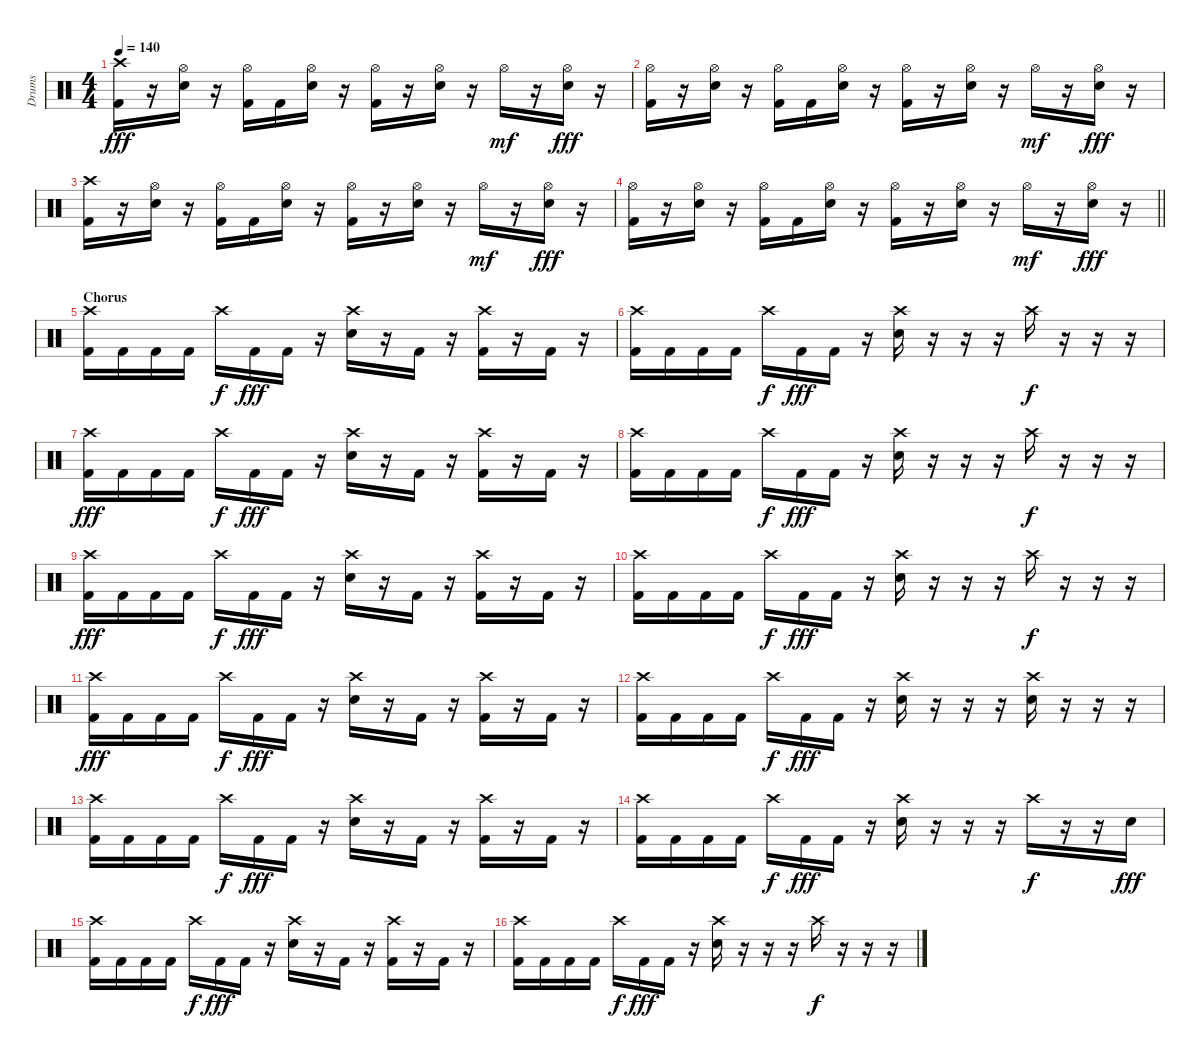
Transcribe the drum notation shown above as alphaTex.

\track ("Drums" "Drums") {instrument percussion}
\staff {score}
\articulation defaults
\ts (4 4)
\tempo 140
\clef neutral
\ks c
("Crash high (hit)" "Kick (hit) 2").16{dy fff} r.16 ("Hi-Hat (open)" "Electric Snare (hit)").16 r.16 ("Hi-Hat (open)" "Kick (hit) 2").16 "Kick (hit) 2".16 ("Hi-Hat (open)" "Electric Snare (hit)").16 r.16 ("Hi-Hat (open)" "Kick (hit) 2").16 r.16 ("Hi-Hat (open)" "Electric Snare (hit)").16 r.16 "Hi-Hat (open)".16{dy mf} r.16 ("Hi-Hat (open)" "Electric Snare (hit)").16{dy fff} r.16 |
("Hi-Hat (open)" "Kick (hit) 2").16 r.16 ("Hi-Hat (open)" "Electric Snare (hit)").16 r.16 ("Hi-Hat (open)" "Kick (hit) 2").16 "Kick (hit) 2".16 ("Hi-Hat (open)" "Electric Snare (hit)").16 r.16 ("Hi-Hat (open)" "Kick (hit) 2").16 r.16 ("Hi-Hat (open)" "Electric Snare (hit)").16 r.16 "Hi-Hat (open)".16{dy mf} r.16 ("Hi-Hat (open)" "Electric Snare (hit)").16{dy fff} r.16 |
("Crash high (hit)" "Kick (hit) 2").16 r.16 ("Hi-Hat (open)" "Electric Snare (hit)").16 r.16 ("Hi-Hat (open)" "Kick (hit) 2").16 "Kick (hit) 2".16 ("Hi-Hat (open)" "Electric Snare (hit)").16 r.16 ("Hi-Hat (open)" "Kick (hit) 2").16 r.16 ("Hi-Hat (open)" "Electric Snare (hit)").16 r.16 "Hi-Hat (open)".16{dy mf} r.16 ("Hi-Hat (open)" "Electric Snare (hit)").16{dy fff} r.16 |
\barLineRight lightlight
("Hi-Hat (open)" "Kick (hit) 2").16 r.16 ("Hi-Hat (open)" "Electric Snare (hit)").16 r.16 ("Hi-Hat (open)" "Kick (hit) 2").16 "Kick (hit) 2".16 ("Hi-Hat (open)" "Electric Snare (hit)").16 r.16 ("Hi-Hat (open)" "Kick (hit) 2").16 r.16 ("Hi-Hat (open)" "Electric Snare (hit)").16 r.16 "Hi-Hat (open)".16{dy mf} r.16 ("Hi-Hat (open)" "Electric Snare (hit)").16{dy fff} r.16 |
\section ("" "Chorus")
("Crash high (hit)" "Kick (hit) 2").16 "Kick (hit) 2".16 "Kick (hit) 2".16 "Kick (hit) 2".16 "Crash high (hit)".16{dy f} "Kick (hit) 2".16{dy fff} "Kick (hit) 2".16 r.16 ("Crash high (hit)" "Electric Snare (hit)").16 r.16 "Kick (hit) 2".16 r.16 ("Crash high (hit)" "Kick (hit) 2").16 r.16 "Kick (hit) 2".16 r.16 |
("Crash high (hit)" "Kick (hit) 2").16 "Kick (hit) 2".16 "Kick (hit) 2".16 "Kick (hit) 2".16 "Crash high (hit)".16{dy f} "Kick (hit) 2".16{dy fff} "Kick (hit) 2".16 r.16 ("Crash high (hit)" "Electric Snare (hit)").16 r.16 r.16 r.16 "Crash high (hit)".16{dy f} r.16 r.16 r.16 |
("Crash high (hit)" "Kick (hit) 2").16{dy fff} "Kick (hit) 2".16 "Kick (hit) 2".16 "Kick (hit) 2".16 "Crash high (hit)".16{dy f} "Kick (hit) 2".16{dy fff} "Kick (hit) 2".16 r.16 ("Crash high (hit)" "Electric Snare (hit)").16 r.16 "Kick (hit) 2".16 r.16 ("Crash high (hit)" "Kick (hit) 2").16 r.16 "Kick (hit) 2".16 r.16 |
("Crash high (hit)" "Kick (hit) 2").16 "Kick (hit) 2".16 "Kick (hit) 2".16 "Kick (hit) 2".16 "Crash high (hit)".16{dy f} "Kick (hit) 2".16{dy fff} "Kick (hit) 2".16 r.16 ("Crash high (hit)" "Electric Snare (hit)").16 r.16 r.16 r.16 "Crash high (hit)".16{dy f} r.16 r.16 r.16 |
("Crash high (hit)" "Kick (hit) 2").16{dy fff} "Kick (hit) 2".16 "Kick (hit) 2".16 "Kick (hit) 2".16 "Crash high (hit)".16{dy f} "Kick (hit) 2".16{dy fff} "Kick (hit) 2".16 r.16 ("Crash high (hit)" "Electric Snare (hit)").16 r.16 "Kick (hit) 2".16 r.16 ("Crash high (hit)" "Kick (hit) 2").16 r.16 "Kick (hit) 2".16 r.16 |
("Crash high (hit)" "Kick (hit) 2").16 "Kick (hit) 2".16 "Kick (hit) 2".16 "Kick (hit) 2".16 "Crash high (hit)".16{dy f} "Kick (hit) 2".16{dy fff} "Kick (hit) 2".16 r.16 ("Crash high (hit)" "Electric Snare (hit)").16 r.16 r.16 r.16 "Crash high (hit)".16{dy f} r.16 r.16 r.16 |
("Crash high (hit)" "Kick (hit) 2").16{dy fff} "Kick (hit) 2".16 "Kick (hit) 2".16 "Kick (hit) 2".16 "Crash high (hit)".16{dy f} "Kick (hit) 2".16{dy fff} "Kick (hit) 2".16 r.16 ("Crash high (hit)" "Electric Snare (hit)").16 r.16 "Kick (hit) 2".16 r.16 ("Crash high (hit)" "Kick (hit) 2").16 r.16 "Kick (hit) 2".16 r.16 |
("Crash high (hit)" "Kick (hit) 2").16 "Kick (hit) 2".16 "Kick (hit) 2".16 "Kick (hit) 2".16 "Crash high (hit)".16{dy f} "Kick (hit) 2".16{dy fff} "Kick (hit) 2".16 r.16 ("Crash high (hit)" "Electric Snare (hit)").16 r.16 r.16 r.16 ("Crash high (hit)" "Electric Snare (hit)").16 r.16 r.16 r.16 |
("Crash high (hit)" "Kick (hit) 2").16 "Kick (hit) 2".16 "Kick (hit) 2".16 "Kick (hit) 2".16 "Crash high (hit)".16{dy f} "Kick (hit) 2".16{dy fff} "Kick (hit) 2".16 r.16 ("Crash high (hit)" "Electric Snare (hit)").16 r.16 "Kick (hit) 2".16 r.16 ("Crash high (hit)" "Kick (hit) 2").16 r.16 "Kick (hit) 2".16 r.16 |
("Crash high (hit)" "Kick (hit) 2").16 "Kick (hit) 2".16 "Kick (hit) 2".16 "Kick (hit) 2".16 "Crash high (hit)".16{dy f} "Kick (hit) 2".16{dy fff} "Kick (hit) 2".16 r.16 ("Crash high (hit)" "Electric Snare (hit)").16 r.16 r.16 r.16 "Crash high (hit)".16{dy f} r.16 r.16 "Electric Snare (hit)".16{dy fff} |
("Crash high (hit)" "Kick (hit) 2").16 "Kick (hit) 2".16 "Kick (hit) 2".16 "Kick (hit) 2".16 "Crash high (hit)".16{dy f} "Kick (hit) 2".16{dy fff} "Kick (hit) 2".16 r.16 ("Crash high (hit)" "Electric Snare (hit)").16 r.16 "Kick (hit) 2".16 r.16 ("Crash high (hit)" "Kick (hit) 2").16 r.16 "Kick (hit) 2".16 r.16 |
("Crash high (hit)" "Kick (hit) 2").16 "Kick (hit) 2".16 "Kick (hit) 2".16 "Kick (hit) 2".16 "Crash high (hit)".16{dy f} "Kick (hit) 2".16{dy fff} "Kick (hit) 2".16 r.16 ("Crash high (hit)" "Electric Snare (hit)").16 r.16 r.16 r.16 "Crash high (hit)".16{dy f} r.16 r.16 r.16
